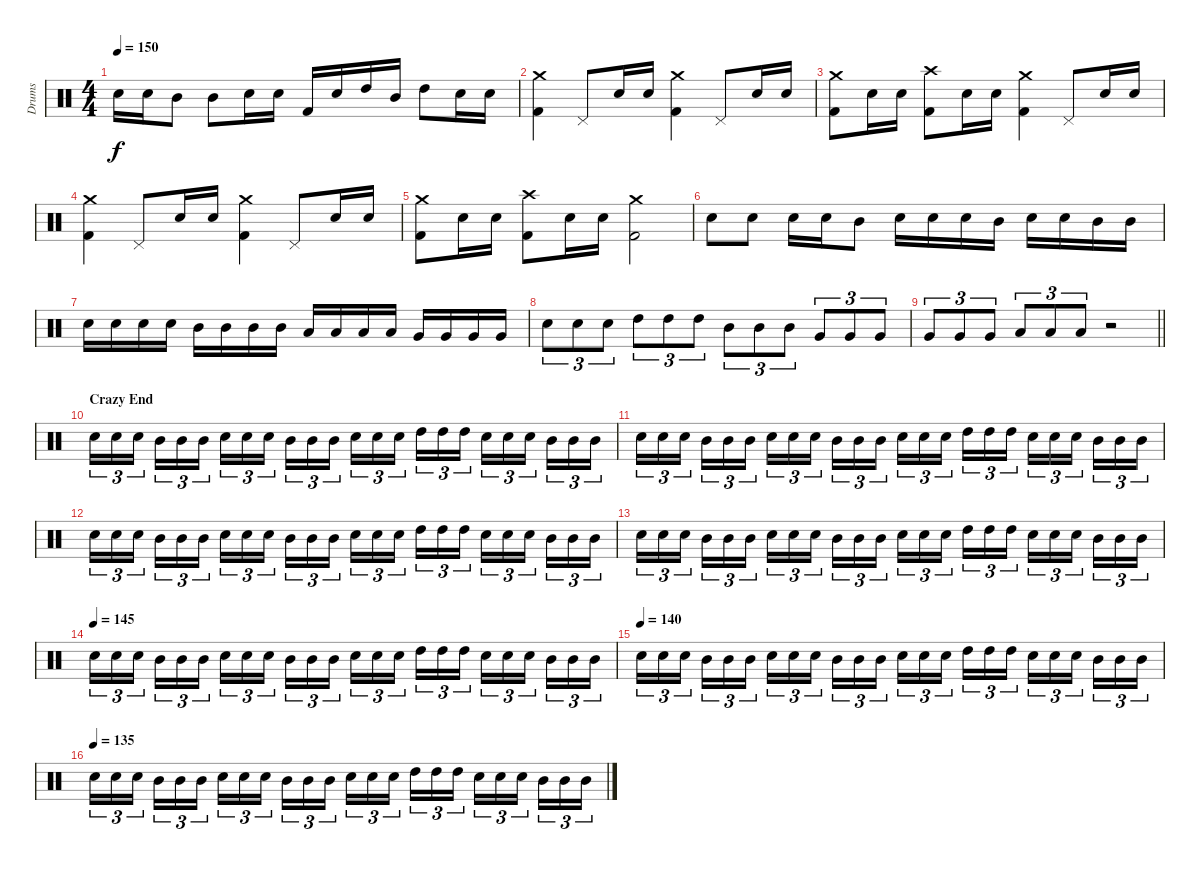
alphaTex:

\track ("Drums" "Drums") {instrument percussion}
\staff {score}
\articulation defaults
\ts (4 4)
\tempo 150
\clef neutral
\ks c "Electric Snare (hit)".16{dy f} "Electric Snare (hit)".16 "Mid Tom (hit)".8 "Mid Tom (hit)".8 "Electric Snare (hit)".16 "Electric Snare (hit)".16 "Kick (hit) 2".16 "Electric Snare (hit)".16 "High Tom (hit)".16 "Mid Tom (hit)".16 "High Tom (hit)".8 "Electric Snare (hit)".16 "Electric Snare (hit)".16
|
("Crash medium (hit)" "Kick (hit) 2").4 "Pedal Hi-Hat (hit)".8 "Electric Snare (hit)".16 "Electric Snare (hit)".16 ("Crash medium (hit)" "Kick (hit) 2").4 "Pedal Hi-Hat (hit)".8 "Electric Snare (hit)".16 "Electric Snare (hit)".16 |
("Crash medium (hit)" "Kick (hit) 2").8 "Electric Snare (hit)".16 "Electric Snare (hit)".16 ("Crash high (hit)" "Kick (hit) 2").8 "Electric Snare (hit)".16 "Electric Snare (hit)".16 ("Crash medium (hit)" "Kick (hit) 2").4 "Pedal Hi-Hat (hit)".8 "Electric Snare (hit)".16 "Electric Snare (hit)".16 |
("Crash medium (hit)" "Kick (hit) 2").4 "Pedal Hi-Hat (hit)".8 "Electric Snare (hit)".16 "Electric Snare (hit)".16 ("Crash medium (hit)" "Kick (hit) 2").4 "Pedal Hi-Hat (hit)".8 "Electric Snare (hit)".16 "Electric Snare (hit)".16 |
("Crash medium (hit)" "Kick (hit) 2").8 "Electric Snare (hit)".16 "Electric Snare (hit)".16 ("Crash high (hit)" "Kick (hit) 2").8 "Electric Snare (hit)".16 "Electric Snare (hit)".16 ("Crash medium (hit)" "Kick (hit) 2").2 |
"Electric Snare (hit)".8 "Electric Snare (hit)".8 "Electric Snare (hit)".16 "Electric Snare (hit)".16 "Mid Tom (hit)".8 "Electric Snare (hit)".16 "Electric Snare (hit)".16 "Electric Snare (hit)".16 "Mid Tom (hit)".16 "Electric Snare (hit)".16 "Electric Snare (hit)".16 "Mid Tom (hit)".16 "Mid Tom (hit)".16 |
"Electric Snare (hit)".16 "Electric Snare (hit)".16 "Electric Snare (hit)".16 "Electric Snare (hit)".16 "Mid Tom (hit)".16 "Mid Tom (hit)".16 "Mid Tom (hit)".16 "Mid Tom (hit)".16 "Low Tom (hit)".16 "Low Tom (hit)".16 "Low Tom (hit)".16 "Low Tom (hit)".16 "Very Low Tom (hit)".16 "Very Low Tom (hit)".16 "Very Low Tom (hit)".16 "Very Low Tom (hit)".16 |
"Electric Snare (hit)".8{tu (3 2)} "Electric Snare (hit)".8{tu (3 2)} "Electric Snare (hit)".8{tu (3 2)} "High Tom (hit)".8{tu (3 2)} "High Tom (hit)".8{tu (3 2)} "High Tom (hit)".8{tu (3 2)} "Mid Tom (hit)".8{tu (3 2)} "Mid Tom (hit)".8{tu (3 2)} "Mid Tom (hit)".8{tu (3 2)} "Very Low Tom (hit)".8{tu (3 2)} "Very Low Tom (hit)".8{tu (3 2)} "Very Low Tom (hit)".8{tu (3 2)} |
\barLineRight lightlight "Very Low Tom (hit)".8{tu (3 2)} "Very Low Tom (hit)".8{tu (3 2)} "Very Low Tom (hit)".8{tu (3 2)} "Low Floor Tom (hit)".8{tu (3 2)} "Low Floor Tom (hit)".8{tu (3 2)} "Low Floor Tom (hit)".8{tu (3 2)}
r.2 |
\section ("" "Crazy End")
"Electric Snare (hit)".16{tu (3 2)} "Electric Snare (hit)".16{tu (3 2)} "Electric Snare (hit)".16{tu (3 2) beam splitsecondary} "Mid Tom (hit)".16{tu (3 2)} "Mid Tom (hit)".16{tu (3 2)} "Mid Tom (hit)".16{tu (3 2)} "Electric Snare (hit)".16{tu (3 2)} "Electric Snare (hit)".16{tu (3 2)} "Electric Snare (hit)".16{tu (3 2) beam splitsecondary} "Mid Tom (hit)".16{tu (3 2)} "Mid Tom (hit)".16{tu (3 2)} "Mid Tom (hit)".16{tu (3 2)} "Electric Snare (hit)".16{tu (3 2)} "Electric Snare (hit)".16{tu (3 2)} "Electric Snare (hit)".16{tu (3 2) beam splitsecondary} "High Tom (hit)".16{tu (3 2)} "High Tom (hit)".16{tu (3 2)} "High Tom (hit)".16{tu (3 2)} "Electric Snare (hit)".16{tu (3 2)} "Electric Snare (hit)".16{tu (3 2)} "Electric Snare (hit)".16{tu (3 2) beam splitsecondary} "Mid Tom (hit)".16{tu (3 2)} "Mid Tom (hit)".16{tu (3 2)} "Mid Tom (hit)".16{tu (3 2)} |
"Electric Snare (hit)".16{tu (3 2)} "Electric Snare (hit)".16{tu (3 2)} "Electric Snare (hit)".16{tu (3 2) beam splitsecondary} "Mid Tom (hit)".16{tu (3 2)} "Mid Tom (hit)".16{tu (3 2)} "Mid Tom (hit)".16{tu (3 2)} "Electric Snare (hit)".16{tu (3 2)} "Electric Snare (hit)".16{tu (3 2)} "Electric Snare (hit)".16{tu (3 2) beam splitsecondary} "Mid Tom (hit)".16{tu (3 2)} "Mid Tom (hit)".16{tu (3 2)} "Mid Tom (hit)".16{tu (3 2)} "Electric Snare (hit)".16{tu (3 2)} "Electric Snare (hit)".16{tu (3 2)} "Electric Snare (hit)".16{tu (3 2) beam splitsecondary} "High Tom (hit)".16{tu (3 2)} "High Tom (hit)".16{tu (3 2)} "High Tom (hit)".16{tu (3 2)} "Electric Snare (hit)".16{tu (3 2)} "Electric Snare (hit)".16{tu (3 2)} "Electric Snare (hit)".16{tu (3 2) beam splitsecondary} "Mid Tom (hit)".16{tu (3 2)} "Mid Tom (hit)".16{tu (3 2)} "Mid Tom (hit)".16{tu (3 2)} |
"Electric Snare (hit)".16{tu (3 2)} "Electric Snare (hit)".16{tu (3 2)} "Electric Snare (hit)".16{tu (3 2) beam splitsecondary} "Mid Tom (hit)".16{tu (3 2)} "Mid Tom (hit)".16{tu (3 2)} "Mid Tom (hit)".16{tu (3 2)} "Electric Snare (hit)".16{tu (3 2)} "Electric Snare (hit)".16{tu (3 2)} "Electric Snare (hit)".16{tu (3 2) beam splitsecondary} "Mid Tom (hit)".16{tu (3 2)} "Mid Tom (hit)".16{tu (3 2)} "Mid Tom (hit)".16{tu (3 2)} "Electric Snare (hit)".16{tu (3 2)} "Electric Snare (hit)".16{tu (3 2)} "Electric Snare (hit)".16{tu (3 2) beam splitsecondary} "High Tom (hit)".16{tu (3 2)} "High Tom (hit)".16{tu (3 2)} "High Tom (hit)".16{tu (3 2)} "Electric Snare (hit)".16{tu (3 2)} "Electric Snare (hit)".16{tu (3 2)} "Electric Snare (hit)".16{tu (3 2) beam splitsecondary} "Mid Tom (hit)".16{tu (3 2)} "Mid Tom (hit)".16{tu (3 2)} "Mid Tom (hit)".16{tu (3 2)} |
"Electric Snare (hit)".16{tu (3 2)} "Electric Snare (hit)".16{tu (3 2)} "Electric Snare (hit)".16{tu (3 2) beam splitsecondary} "Mid Tom (hit)".16{tu (3 2)} "Mid Tom (hit)".16{tu (3 2)} "Mid Tom (hit)".16{tu (3 2)} "Electric Snare (hit)".16{tu (3 2)} "Electric Snare (hit)".16{tu (3 2)} "Electric Snare (hit)".16{tu (3 2) beam splitsecondary} "Mid Tom (hit)".16{tu (3 2)} "Mid Tom (hit)".16{tu (3 2)} "Mid Tom (hit)".16{tu (3 2)} "Electric Snare (hit)".16{tu (3 2)} "Electric Snare (hit)".16{tu (3 2)} "Electric Snare (hit)".16{tu (3 2) beam splitsecondary} "High Tom (hit)".16{tu (3 2)} "High Tom (hit)".16{tu (3 2)} "High Tom (hit)".16{tu (3 2)} "Electric Snare (hit)".16{tu (3 2)} "Electric Snare (hit)".16{tu (3 2)} "Electric Snare (hit)".16{tu (3 2) beam splitsecondary} "Mid Tom (hit)".16{tu (3 2)} "Mid Tom (hit)".16{tu (3 2)} "Mid Tom (hit)".16{tu (3 2)} |
\tempo (145)
"Electric Snare (hit)".16{tu (3 2)} "Electric Snare (hit)".16{tu (3 2)} "Electric Snare (hit)".16{tu (3 2) beam splitsecondary} "Mid Tom (hit)".16{tu (3 2)} "Mid Tom (hit)".16{tu (3 2)} "Mid Tom (hit)".16{tu (3 2)} "Electric Snare (hit)".16{tu (3 2)} "Electric Snare (hit)".16{tu (3 2)} "Electric Snare (hit)".16{tu (3 2) beam splitsecondary} "Mid Tom (hit)".16{tu (3 2)} "Mid Tom (hit)".16{tu (3 2)} "Mid Tom (hit)".16{tu (3 2)} "Electric Snare (hit)".16{tu (3 2)} "Electric Snare (hit)".16{tu (3 2)} "Electric Snare (hit)".16{tu (3 2) beam splitsecondary} "High Tom (hit)".16{tu (3 2)} "High Tom (hit)".16{tu (3 2)} "High Tom (hit)".16{tu (3 2)} "Electric Snare (hit)".16{tu (3 2)} "Electric Snare (hit)".16{tu (3 2)} "Electric Snare (hit)".16{tu (3 2) beam splitsecondary} "Mid Tom (hit)".16{tu (3 2)} "Mid Tom (hit)".16{tu (3 2)} "Mid Tom (hit)".16{tu (3 2)} |
\tempo (140)
"Electric Snare (hit)".16{tu (3 2)} "Electric Snare (hit)".16{tu (3 2)} "Electric Snare (hit)".16{tu (3 2) beam splitsecondary} "Mid Tom (hit)".16{tu (3 2)} "Mid Tom (hit)".16{tu (3 2)} "Mid Tom (hit)".16{tu (3 2)} "Electric Snare (hit)".16{tu (3 2)} "Electric Snare (hit)".16{tu (3 2)} "Electric Snare (hit)".16{tu (3 2) beam splitsecondary} "Mid Tom (hit)".16{tu (3 2)} "Mid Tom (hit)".16{tu (3 2)} "Mid Tom (hit)".16{tu (3 2)} "Electric Snare (hit)".16{tu (3 2)} "Electric Snare (hit)".16{tu (3 2)} "Electric Snare (hit)".16{tu (3 2) beam splitsecondary} "High Tom (hit)".16{tu (3 2)} "High Tom (hit)".16{tu (3 2)} "High Tom (hit)".16{tu (3 2)} "Electric Snare (hit)".16{tu (3 2)} "Electric Snare (hit)".16{tu (3 2)} "Electric Snare (hit)".16{tu (3 2) beam splitsecondary} "Mid Tom (hit)".16{tu (3 2)} "Mid Tom (hit)".16{tu (3 2)} "Mid Tom (hit)".16{tu (3 2)} |
\tempo (135)
"Electric Snare (hit)".16{tu (3 2)} "Electric Snare (hit)".16{tu (3 2)} "Electric Snare (hit)".16{tu (3 2) beam splitsecondary} "Mid Tom (hit)".16{tu (3 2)} "Mid Tom (hit)".16{tu (3 2)} "Mid Tom (hit)".16{tu (3 2)} "Electric Snare (hit)".16{tu (3 2)} "Electric Snare (hit)".16{tu (3 2)} "Electric Snare (hit)".16{tu (3 2) beam splitsecondary} "Mid Tom (hit)".16{tu (3 2)} "Mid Tom (hit)".16{tu (3 2)} "Mid Tom (hit)".16{tu (3 2)} "Electric Snare (hit)".16{tu (3 2)} "Electric Snare (hit)".16{tu (3 2)} "Electric Snare (hit)".16{tu (3 2) beam splitsecondary} "High Tom (hit)".16{tu (3 2)} "High Tom (hit)".16{tu (3 2)} "High Tom (hit)".16{tu (3 2)} "Electric Snare (hit)".16{tu (3 2)} "Electric Snare (hit)".16{tu (3 2)} "Electric Snare (hit)".16{tu (3 2) beam splitsecondary} "Mid Tom (hit)".16{tu (3 2)} "Mid Tom (hit)".16{tu (3 2)} "Mid Tom (hit)".16{tu (3 2)}
